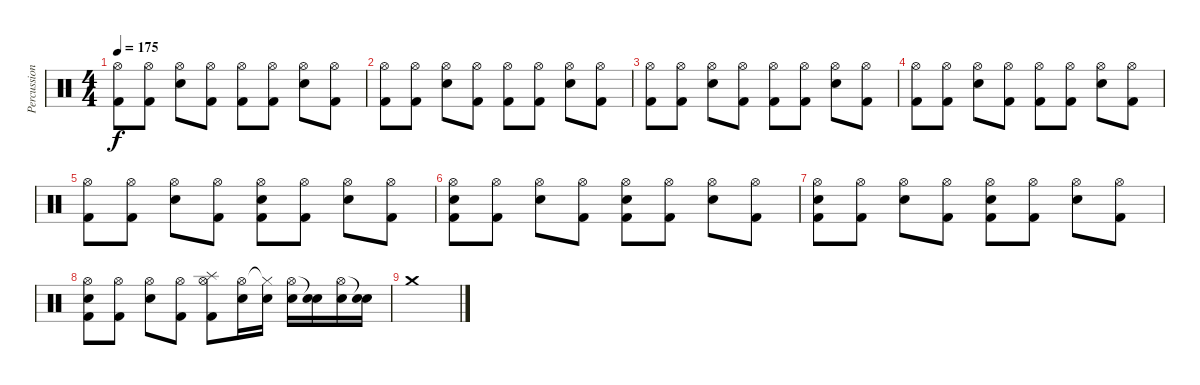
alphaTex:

\track ("Percussion" "Percussion") {instrument percussion}
\staff {score}
\articulation defaults
\ts (4 4)
\tempo 175
\clef neutral
\ks c
("Hi-Hat (open)" "Kick (hit) 2").8{dy f} ("Hi-Hat (open)" "Kick (hit) 2").8 ("Hi-Hat (open)" "Snare (hit) 2").8 ("Hi-Hat (open)" "Kick (hit) 2").8 ("Hi-Hat (open)" "Kick (hit) 2").8 ("Hi-Hat (open)" "Kick (hit) 2").8 ("Hi-Hat (open)" "Snare (hit) 2").8 ("Hi-Hat (open)" "Kick (hit) 2").8 |
("Hi-Hat (open)" "Kick (hit) 2").8 ("Hi-Hat (open)" "Kick (hit) 2").8 ("Hi-Hat (open)" "Snare (hit) 2").8 ("Hi-Hat (open)" "Kick (hit) 2").8 ("Hi-Hat (open)" "Kick (hit) 2").8 ("Hi-Hat (open)" "Kick (hit) 2").8 ("Hi-Hat (open)" "Snare (hit) 2").8 ("Hi-Hat (open)" "Kick (hit) 2").8 |
("Hi-Hat (open)" "Kick (hit) 2").8 ("Hi-Hat (open)" "Kick (hit) 2").8 ("Hi-Hat (open)" "Snare (hit) 2").8 ("Hi-Hat (open)" "Kick (hit) 2").8 ("Hi-Hat (open)" "Kick (hit) 2").8 ("Hi-Hat (open)" "Kick (hit) 2").8 ("Hi-Hat (open)" "Snare (hit) 2").8 ("Hi-Hat (open)" "Kick (hit) 2").8 |
("Hi-Hat (open)" "Kick (hit) 2").8 ("Hi-Hat (open)" "Kick (hit) 2").8 ("Hi-Hat (open)" "Snare (hit) 2").8 ("Hi-Hat (open)" "Kick (hit) 2").8 ("Hi-Hat (open)" "Kick (hit) 2").8 ("Hi-Hat (open)" "Kick (hit) 2").8 ("Hi-Hat (open)" "Snare (hit) 2").8 ("Hi-Hat (open)" "Kick (hit) 2").8 |
("Hi-Hat (open)" "Kick (hit) 2").8 ("Hi-Hat (open)" "Kick (hit) 2").8 ("Hi-Hat (open)" "Snare (hit) 2").8 ("Hi-Hat (open)" "Kick (hit) 2").8 ("Hi-Hat (open)" "Snare (hit) 2" "Kick (hit) 2").8 ("Hi-Hat (open)" "Kick (hit) 2").8 ("Hi-Hat (open)" "Snare (hit) 2").8 ("Hi-Hat (open)" "Kick (hit) 2").8 |
("Hi-Hat (open)" "Snare (hit) 2" "Kick (hit) 2").8 ("Hi-Hat (open)" "Kick (hit) 2").8 ("Hi-Hat (open)" "Snare (hit) 2").8 ("Hi-Hat (open)" "Kick (hit) 2").8 ("Hi-Hat (open)" "Snare (hit) 2" "Kick (hit) 2").8 ("Hi-Hat (open)" "Kick (hit) 2").8 ("Hi-Hat (open)" "Snare (hit) 2").8 ("Hi-Hat (open)" "Kick (hit) 2").8 |
("Hi-Hat (open)" "Snare (hit) 2" "Kick (hit) 2").8 ("Hi-Hat (open)" "Kick (hit) 2").8 ("Hi-Hat (open)" "Snare (hit) 2").8 ("Hi-Hat (open)" "Kick (hit) 2").8 ("Hi-Hat (open)" "Snare (hit) 2" "Kick (hit) 2").8 ("Hi-Hat (open)" "Kick (hit) 2").8 ("Hi-Hat (open)" "Snare (hit) 2").8 ("Hi-Hat (open)" "Kick (hit) 2").8 |
("Hi-Hat (open)" "Snare (hit) 2" "Kick (hit) 2").8 ("Hi-Hat (open)" "Kick (hit) 2").8 ("Hi-Hat (open)" "Snare (hit) 2").8 ("Hi-Hat (open)" "Kick (hit) 2").8 ("Hi-Hat (open)" "Splash (hit)" "Kick (hit) 2").8 ("Hi-Hat (open)" "Snare (hit) 2").16 ("Hi-Hat (closed)"{t} "Snare (hit) 2").16 ("Hi-Hat (open)" "Snare (hit) 2").16 ("Snare (hit)"{t} "Snare (hit) 2").16 ("Hi-Hat (open)" "Snare (hit) 2").16 ("Snare (hit)"{t} "Snare (hit) 2").16 |
"Crash medium (hit)".1
